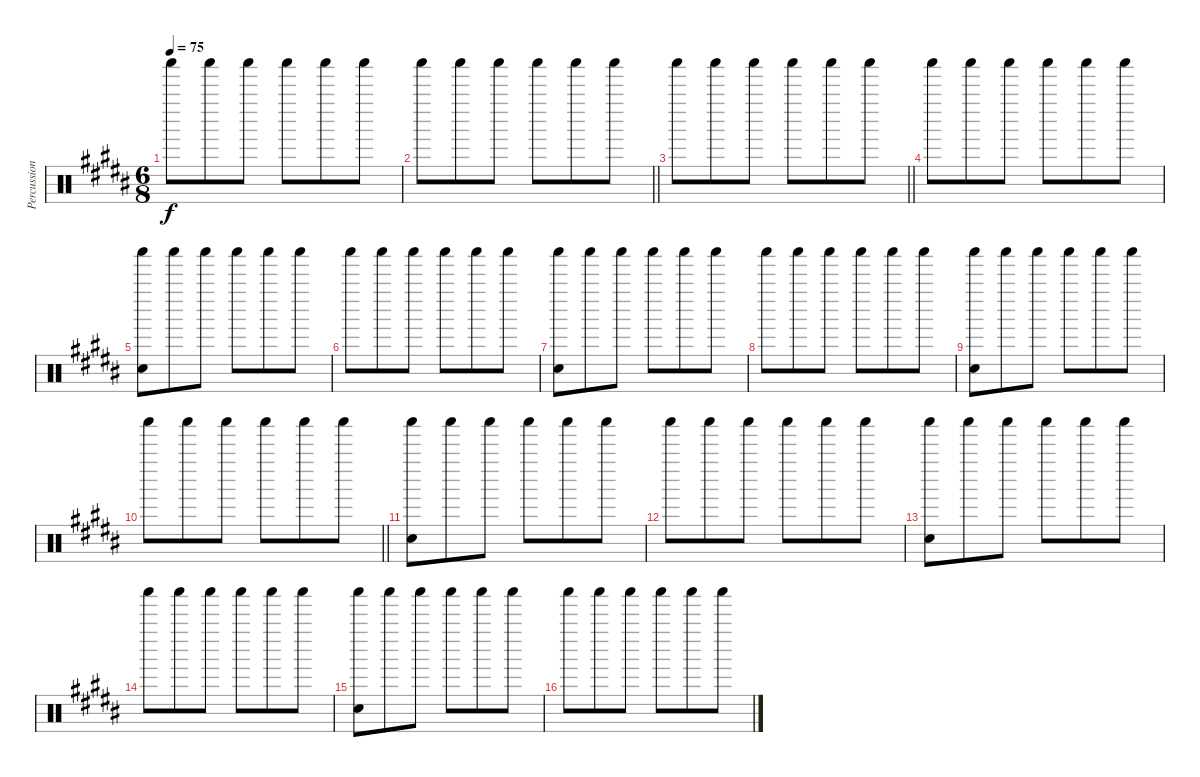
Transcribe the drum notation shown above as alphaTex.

\track ("Percussion" "Percussion") {instrument percussion}
\staff {score}
\articulation defaults
\ts (6 8)
\tempo 75
\clef neutral
\ks b "Shaker (hit)".8{dy f} "Shaker (hit)".8 "Shaker (hit)".8 "Shaker (hit)".8 "Shaker (hit)".8 "Shaker (hit)".8
|
\barLineRight lightlight "Shaker (hit)".8 "Shaker (hit)".8 "Shaker (hit)".8 "Shaker (hit)".8 "Shaker (hit)".8 "Shaker (hit)".8
|
\barLineRight lightlight "Shaker (hit)".8 "Shaker (hit)".8 "Shaker (hit)".8 "Shaker (hit)".8 "Shaker (hit)".8 "Shaker (hit)".8
|
"Shaker (hit)".8 "Shaker (hit)".8 "Shaker (hit)".8 "Shaker (hit)".8 "Shaker (hit)".8 "Shaker (hit)".8 |
("Shaker (hit)" "Hand Clap (hit)").8 "Shaker (hit)".8 "Shaker (hit)".8 "Shaker (hit)".8 "Shaker (hit)".8 "Shaker (hit)".8 |
"Shaker (hit)".8 "Shaker (hit)".8 "Shaker (hit)".8 "Shaker (hit)".8 "Shaker (hit)".8 "Shaker (hit)".8 |
("Shaker (hit)" "Hand Clap (hit)").8 "Shaker (hit)".8 "Shaker (hit)".8 "Shaker (hit)".8 "Shaker (hit)".8 "Shaker (hit)".8 |
"Shaker (hit)".8 "Shaker (hit)".8 "Shaker (hit)".8 "Shaker (hit)".8 "Shaker (hit)".8 "Shaker (hit)".8 |
("Shaker (hit)" "Hand Clap (hit)").8 "Shaker (hit)".8 "Shaker (hit)".8 "Shaker (hit)".8 "Shaker (hit)".8 "Shaker (hit)".8 |
\barLineRight lightlight "Shaker (hit)".8 "Shaker (hit)".8 "Shaker (hit)".8 "Shaker (hit)".8 "Shaker (hit)".8 "Shaker (hit)".8
|
("Shaker (hit)" "Hand Clap (hit)").8 "Shaker (hit)".8 "Shaker (hit)".8 "Shaker (hit)".8 "Shaker (hit)".8 "Shaker (hit)".8 |
"Shaker (hit)".8 "Shaker (hit)".8 "Shaker (hit)".8 "Shaker (hit)".8 "Shaker (hit)".8 "Shaker (hit)".8 |
("Shaker (hit)" "Hand Clap (hit)").8 "Shaker (hit)".8 "Shaker (hit)".8 "Shaker (hit)".8 "Shaker (hit)".8 "Shaker (hit)".8 |
"Shaker (hit)".8 "Shaker (hit)".8 "Shaker (hit)".8 "Shaker (hit)".8 "Shaker (hit)".8 "Shaker (hit)".8 |
("Shaker (hit)" "Hand Clap (hit)").8 "Shaker (hit)".8 "Shaker (hit)".8 "Shaker (hit)".8 "Shaker (hit)".8 "Shaker (hit)".8 |
"Shaker (hit)".8 "Shaker (hit)".8 "Shaker (hit)".8 "Shaker (hit)".8 "Shaker (hit)".8 "Shaker (hit)".8
